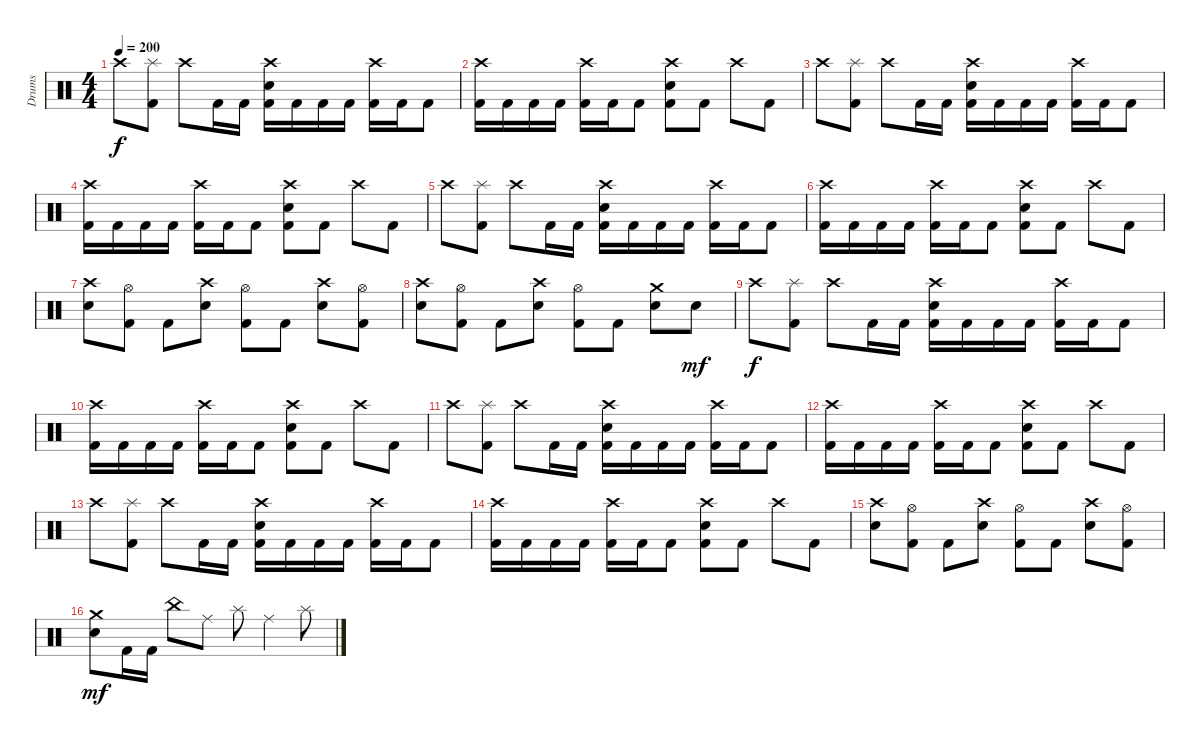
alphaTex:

\track ("Drums" "Drums") {instrument percussion}
\staff {score}
\articulation defaults
\ts (4 4)
\tempo 200
\clef neutral
\ks c "Crash high (hit)".8{dy f}
("Splash (hit)" "Kick (hit) 2").8 "Crash high (hit)".8 "Kick (hit) 2".16 "Kick (hit) 2".16 ("Crash high (hit)" "Electric Snare (hit)" "Kick (hit) 2").16 "Kick (hit) 2".16 "Kick (hit) 2".16 "Kick (hit) 2".16 ("Crash high (hit)" "Kick (hit) 2").16 "Kick (hit) 2".16 "Kick (hit) 2".8 |
("Crash high (hit)" "Kick (hit) 2").16 "Kick (hit) 2".16 "Kick (hit) 2".16 "Kick (hit) 2".16 ("Crash high (hit)" "Kick (hit) 2").16 "Kick (hit) 2".16 "Kick (hit) 2".8 ("Crash high (hit)" "Electric Snare (hit)" "Kick (hit) 2").8 "Kick (hit) 2".8 "Crash high (hit)".8 "Kick (hit) 2".8 |
"Crash high (hit)".8 ("Splash (hit)" "Kick (hit) 2").8 "Crash high (hit)".8 "Kick (hit) 2".16 "Kick (hit) 2".16 ("Crash high (hit)" "Electric Snare (hit)" "Kick (hit) 2").16 "Kick (hit) 2".16 "Kick (hit) 2".16 "Kick (hit) 2".16 ("Crash high (hit)" "Kick (hit) 2").16 "Kick (hit) 2".16 "Kick (hit) 2".8 |
("Crash high (hit)" "Kick (hit) 2").16 "Kick (hit) 2".16 "Kick (hit) 2".16 "Kick (hit) 2".16 ("Crash high (hit)" "Kick (hit) 2").16 "Kick (hit) 2".16 "Kick (hit) 2".8 ("Crash high (hit)" "Electric Snare (hit)" "Kick (hit) 2").8 "Kick (hit) 2".8 "Crash high (hit)".8 "Kick (hit) 2".8 |
"Crash high (hit)".8 ("Splash (hit)" "Kick (hit) 2").8 "Crash high (hit)".8 "Kick (hit) 2".16 "Kick (hit) 2".16 ("Crash high (hit)" "Electric Snare (hit)" "Kick (hit) 2").16 "Kick (hit) 2".16 "Kick (hit) 2".16 "Kick (hit) 2".16 ("Crash high (hit)" "Kick (hit) 2").16 "Kick (hit) 2".16 "Kick (hit) 2".8 |
("Crash high (hit)" "Kick (hit) 2").16 "Kick (hit) 2".16 "Kick (hit) 2".16 "Kick (hit) 2".16 ("Crash high (hit)" "Kick (hit) 2").16 "Kick (hit) 2".16 "Kick (hit) 2".8 ("Crash high (hit)" "Electric Snare (hit)" "Kick (hit) 2").8 "Kick (hit) 2".8 "Crash high (hit)".8 "Kick (hit) 2".8 |
("Crash high (hit)" "Electric Snare (hit)").8 ("Hi-Hat (open)" "Kick (hit) 2").8 "Kick (hit) 2".8 ("Crash high (hit)" "Electric Snare (hit)").8 ("Hi-Hat (open)" "Kick (hit) 2").8 "Kick (hit) 2".8 ("Crash high (hit)" "Electric Snare (hit)").8 ("Hi-Hat (open)" "Kick (hit) 2").8 |
("Crash high (hit)" "Electric Snare (hit)").8 ("Hi-Hat (open)" "Kick (hit) 2").8 "Kick (hit) 2".8 ("Crash high (hit)" "Electric Snare (hit)").8 ("Hi-Hat (open)" "Kick (hit) 2").8 "Kick (hit) 2".8 ("Crash medium (hit)" "Electric Snare (hit)").8 "Electric Snare (hit)".8{dy mf} |
"Crash high (hit)".8{dy f} ("Splash (hit)" "Kick (hit) 2").8 "Crash high (hit)".8 "Kick (hit) 2".16 "Kick (hit) 2".16 ("Crash high (hit)" "Electric Snare (hit)" "Kick (hit) 2").16 "Kick (hit) 2".16 "Kick (hit) 2".16 "Kick (hit) 2".16 ("Crash high (hit)" "Kick (hit) 2").16 "Kick (hit) 2".16 "Kick (hit) 2".8 |
("Crash high (hit)" "Kick (hit) 2").16 "Kick (hit) 2".16 "Kick (hit) 2".16 "Kick (hit) 2".16 ("Crash high (hit)" "Kick (hit) 2").16 "Kick (hit) 2".16 "Kick (hit) 2".8 ("Crash high (hit)" "Electric Snare (hit)" "Kick (hit) 2").8 "Kick (hit) 2".8 "Crash high (hit)".8 "Kick (hit) 2".8 |
"Crash high (hit)".8 ("Splash (hit)" "Kick (hit) 2").8 "Crash high (hit)".8 "Kick (hit) 2".16 "Kick (hit) 2".16 ("Crash high (hit)" "Electric Snare (hit)" "Kick (hit) 2").16 "Kick (hit) 2".16 "Kick (hit) 2".16 "Kick (hit) 2".16 ("Crash high (hit)" "Kick (hit) 2").16 "Kick (hit) 2".16 "Kick (hit) 2".8 |
("Crash high (hit)" "Kick (hit) 2").16 "Kick (hit) 2".16 "Kick (hit) 2".16 "Kick (hit) 2".16 ("Crash high (hit)" "Kick (hit) 2").16 "Kick (hit) 2".16 "Kick (hit) 2".8 ("Crash high (hit)" "Electric Snare (hit)" "Kick (hit) 2").8 "Kick (hit) 2".8 "Crash high (hit)".8 "Kick (hit) 2".8 |
"Crash high (hit)".8 ("Splash (hit)" "Kick (hit) 2").8 "Crash high (hit)".8 "Kick (hit) 2".16 "Kick (hit) 2".16 ("Crash high (hit)" "Electric Snare (hit)" "Kick (hit) 2").16 "Kick (hit) 2".16 "Kick (hit) 2".16 "Kick (hit) 2".16 ("Crash high (hit)" "Kick (hit) 2").16 "Kick (hit) 2".16 "Kick (hit) 2".8 |
("Crash high (hit)" "Kick (hit) 2").16 "Kick (hit) 2".16 "Kick (hit) 2".16 "Kick (hit) 2".16 ("Crash high (hit)" "Kick (hit) 2").16 "Kick (hit) 2".16 "Kick (hit) 2".8 ("Crash high (hit)" "Electric Snare (hit)" "Kick (hit) 2").8 "Kick (hit) 2".8 "Crash high (hit)".8 "Kick (hit) 2".8 |
("Crash high (hit)" "Electric Snare (hit)").8 ("Hi-Hat (open)" "Kick (hit) 2").8 "Kick (hit) 2".8 ("Crash high (hit)" "Electric Snare (hit)").8 ("Hi-Hat (open)" "Kick (hit) 2").8 "Kick (hit) 2".8 ("Crash high (hit)" "Electric Snare (hit)").8 ("Hi-Hat (open)" "Kick (hit) 2").8 |
("Crash medium (hit)" "Electric Snare (hit)").8{dy mf} "Kick (hit) 2".16 "Kick (hit) 2".16 "China (hit)".8 "Ride (middle)".8 "Splash (hit)".8 "Ride (middle)".4 "Splash (hit)".8
